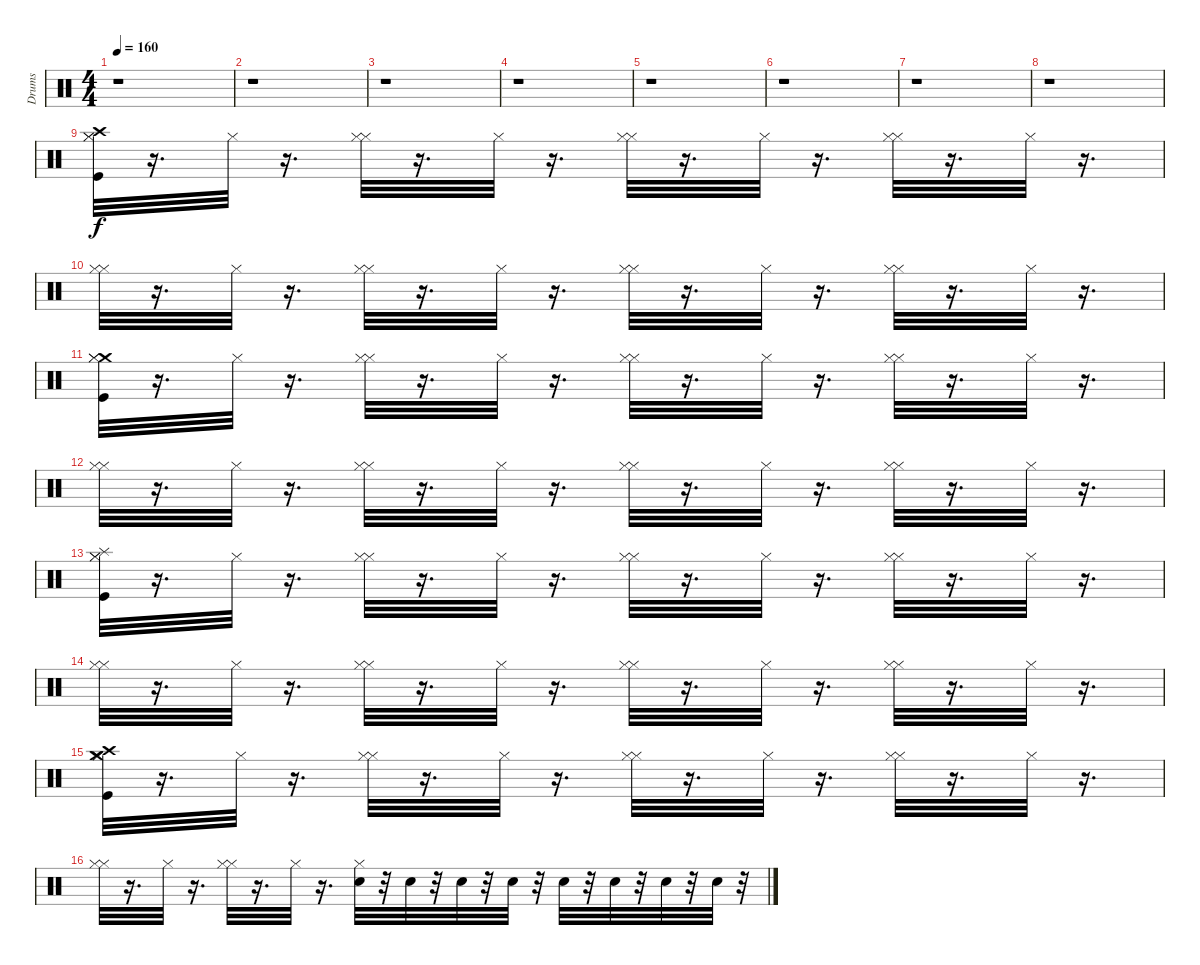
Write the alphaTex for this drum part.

\track ("Drums" "Drums") {instrument percussion}
\staff {score}
\articulation defaults
\ts (4 4)
\tempo 160
\clef neutral
\ks c
r.1{dy f} |
r.1 |
r.1 |
r.1 |
r.1 |
r.1 |
r.1 |
r.1 |
("Crash high (hit)" "Kick (hit)" "Hi-Hat (closed)" "Hi-Hat (closed)").32 r.16{d} "Hi-Hat (closed)".32 r.16{d} ("Hi-Hat (closed)" "Hi-Hat (closed)").32 r.16{d} "Hi-Hat (closed)".32 r.16{d} ("Hi-Hat (closed)" "Hi-Hat (closed)").32 r.16{d} "Hi-Hat (closed)".32 r.16{d} ("Hi-Hat (closed)" "Hi-Hat (closed)").32 r.16{d} "Hi-Hat (closed)".32 r.16{d} |
("Hi-Hat (closed)" "Hi-Hat (closed)").32 r.16{d} "Hi-Hat (closed)".32 r.16{d} ("Hi-Hat (closed)" "Hi-Hat (closed)").32 r.16{d} "Hi-Hat (closed)".32 r.16{d} ("Hi-Hat (closed)" "Hi-Hat (closed)").32 r.16{d} "Hi-Hat (closed)".32 r.16{d} ("Hi-Hat (closed)" "Hi-Hat (closed)").32 r.16{d} "Hi-Hat (closed)".32 r.16{d} |
("Crash medium (hit)" "Kick (hit)" "Hi-Hat (closed)" "Hi-Hat (closed)").32 r.16{d} "Hi-Hat (closed)".32 r.16{d} ("Hi-Hat (closed)" "Hi-Hat (closed)").32 r.16{d} "Hi-Hat (closed)".32 r.16{d} ("Hi-Hat (closed)" "Hi-Hat (closed)").32 r.16{d} "Hi-Hat (closed)".32 r.16{d} ("Hi-Hat (closed)" "Hi-Hat (closed)").32 r.16{d} "Hi-Hat (closed)".32 r.16{d} |
("Hi-Hat (closed)" "Hi-Hat (closed)").32 r.16{d} "Hi-Hat (closed)".32 r.16{d} ("Hi-Hat (closed)" "Hi-Hat (closed)").32 r.16{d} "Hi-Hat (closed)".32 r.16{d} ("Hi-Hat (closed)" "Hi-Hat (closed)").32 r.16{d} "Hi-Hat (closed)".32 r.16{d} ("Hi-Hat (closed)" "Hi-Hat (closed)").32 r.16{d} "Hi-Hat (closed)".32 r.16{d} |
("Kick (hit)" "Splash (hit)" "Hi-Hat (closed)" "Hi-Hat (closed)").32 r.16{d} "Hi-Hat (closed)".32 r.16{d} ("Hi-Hat (closed)" "Hi-Hat (closed)").32 r.16{d} "Hi-Hat (closed)".32 r.16{d} ("Hi-Hat (closed)" "Hi-Hat (closed)").32 r.16{d} "Hi-Hat (closed)".32 r.16{d} ("Hi-Hat (closed)" "Hi-Hat (closed)").32 r.16{d} "Hi-Hat (closed)".32 r.16{d} |
("Hi-Hat (closed)" "Hi-Hat (closed)").32 r.16{d} "Hi-Hat (closed)".32 r.16{d} ("Hi-Hat (closed)" "Hi-Hat (closed)").32 r.16{d} "Hi-Hat (closed)".32 r.16{d} ("Hi-Hat (closed)" "Hi-Hat (closed)").32 r.16{d} "Hi-Hat (closed)".32 r.16{d} ("Hi-Hat (closed)" "Hi-Hat (closed)").32 r.16{d} "Hi-Hat (closed)".32 r.16{d} |
("Crash medium (hit)" "Crash high (hit)" "Kick (hit)" "Hi-Hat (closed)" "Hi-Hat (closed)").32 r.16{d} "Hi-Hat (closed)".32 r.16{d} ("Hi-Hat (closed)" "Hi-Hat (closed)").32 r.16{d} "Hi-Hat (closed)".32 r.16{d} ("Hi-Hat (closed)" "Hi-Hat (closed)").32 r.16{d} "Hi-Hat (closed)".32 r.16{d} ("Hi-Hat (closed)" "Hi-Hat (closed)").32 r.16{d} "Hi-Hat (closed)".32 r.16{d} |
("Hi-Hat (closed)" "Hi-Hat (closed)").32 r.16{d} "Hi-Hat (closed)".32 r.16{d} ("Hi-Hat (closed)" "Hi-Hat (closed)").32 r.16{d} "Hi-Hat (closed)".32 r.16{d} ("Hi-Hat (closed)" "Snare (hit) 2").32 r.32 "Snare (hit) 2".32 r.32 "Snare (hit) 2".32 r.32 "Snare (hit) 2".32 r.32 "Snare (hit) 2".32 r.32 "Snare (hit) 2".32 r.32 "Snare (hit) 2".32 r.32 "Snare (hit) 2".32 r.32
